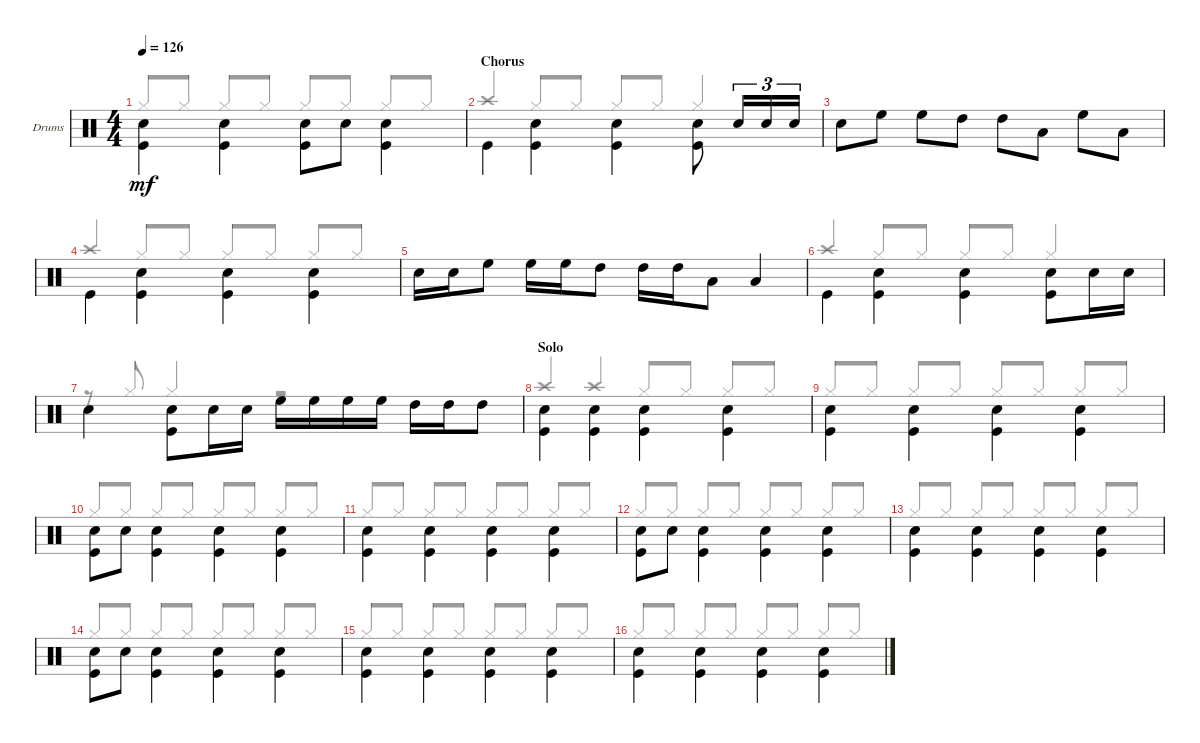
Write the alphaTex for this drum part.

\defaultSystemsLayout 4
\bracketExtendMode groupsimilarinstruments
\firstSystemTrackNameOrientation horizontal
\otherSystemsTrackNameOrientation horizontal
\track ("PETER CRISS" "Drums") {instrument percussion}
\staff {score}
\articulation defaults
\voice
\ts (4 4)
\tempo 126
\clef neutral
\scale
0.301275
\ks c
("Snare (hit) 2" "Kick (hit)").4{dy mf beam invert} ("Snare (hit) 2" "Kick (hit)").4{beam invert} ("Snare (hit) 2" "Kick (hit)").8{beam invert} "Snare (hit) 2".8 ("Snare (hit) 2" "Kick (hit)").4{beam invert} |
\section ("" "Chorus")
\scale
0.443426 "Kick (hit)".4{beam invert} ("Snare (hit) 2" "Kick (hit)").4{beam invert} ("Snare (hit) 2" "Kick (hit)").4{beam invert} ("Snare (hit) 2" "Kick (hit)").8{beam invert} "Snare (hit) 2".16{tu (3 2)} "Snare (hit) 2".16{tu (3 2)} "Snare (hit) 2".16{tu (3 2)} |
"Snare (hit) 2".8 "High Floor Tom (hit)".8 "High Floor Tom (hit)".8 "High Tom (hit)".8 "High Tom (hit)".8 "Low Tom (hit)".8 "High Floor Tom (hit)".8 "Low Tom (hit)".8 |
"Kick (hit)".4{beam invert} ("Snare (hit) 2" "Kick (hit)").4{beam invert} ("Snare (hit) 2" "Kick (hit)").4{beam invert} ("Snare (hit) 2" "Kick (hit)").4{beam invert} |
"Snare (hit) 2".16 "Snare (hit) 2".16 "High Floor Tom (hit)".8 "High Floor Tom (hit)".16 "High Floor Tom (hit)".16 "High Tom (hit)".8 "High Tom (hit)".16 "High Tom (hit)".16 "Low Tom (hit)".8 "Low Tom (hit)".4 |
"Kick (hit)".4{beam invert} ("Snare (hit) 2" "Kick (hit)").4{beam invert} ("Snare (hit) 2" "Kick (hit)").4{beam invert} ("Snare (hit) 2" "Kick (hit)").8{beam invert} "Snare (hit) 2".16 "Snare (hit) 2".16 |
"Snare (hit) 2".4{beam invert} ("Snare (hit) 2" "Kick (hit)").8{beam invert} "Snare (hit) 2".16 "Snare (hit) 2".16 "High Floor Tom (hit)".16{beam invert} "High Floor Tom (hit)".16 "High Floor Tom (hit)".16 "High Floor Tom (hit)".16 "High Tom (hit)".16{beam invert} "High Tom (hit)".16 "High Tom (hit)".8 |
\section ("" "Solo")
("Snare (hit) 2" "Kick (hit)").4{beam invert} ("Snare (hit) 2" "Kick (hit)").4{beam invert} ("Snare (hit) 2" "Kick (hit)").4{beam invert} ("Snare (hit) 2" "Kick (hit)").4{beam invert} |
("Snare (hit) 2" "Kick (hit)").4{beam invert} ("Snare (hit) 2" "Kick (hit)").4{beam invert} ("Snare (hit) 2" "Kick (hit)").4{beam invert} ("Snare (hit) 2" "Kick (hit)").4{beam invert} |
("Kick (hit)" "Snare (hit) 2").8{beam invert} "Snare (hit) 2".8 ("Snare (hit) 2" "Kick (hit)").4{beam invert} ("Snare (hit) 2" "Kick (hit)").4{beam invert} ("Snare (hit) 2" "Kick (hit)").4{beam invert} |
("Snare (hit) 2" "Kick (hit)").4{beam invert} ("Snare (hit) 2" "Kick (hit)").4{beam invert} ("Snare (hit) 2" "Kick (hit)").4{beam invert} ("Snare (hit) 2" "Kick (hit)").4{beam invert} |
("Kick (hit)" "Snare (hit) 2").8{beam invert} "Snare (hit) 2".8 ("Snare (hit) 2" "Kick (hit)").4{beam invert} ("Snare (hit) 2" "Kick (hit)").4{beam invert} ("Snare (hit) 2" "Kick (hit)").4{beam invert} |
("Snare (hit) 2" "Kick (hit)").4{beam invert} ("Snare (hit) 2" "Kick (hit)").4{beam invert} ("Snare (hit) 2" "Kick (hit)").4{beam invert} ("Snare (hit) 2" "Kick (hit)").4{beam invert} |
("Kick (hit)" "Snare (hit) 2").8{beam invert} "Snare (hit) 2".8 ("Snare (hit) 2" "Kick (hit)").4{beam invert} ("Snare (hit) 2" "Kick (hit)").4{beam invert} ("Snare (hit) 2" "Kick (hit)").4{beam invert} |
("Snare (hit) 2" "Kick (hit)").4{beam invert} ("Snare (hit) 2" "Kick (hit)").4{beam invert} ("Snare (hit) 2" "Kick (hit)").4{beam invert} ("Snare (hit) 2" "Kick (hit)").4{beam invert} |
("Snare (hit) 2" "Kick (hit)").4{beam invert} ("Snare (hit) 2" "Kick (hit)").4{beam invert} ("Snare (hit) 2" "Kick (hit)").4{beam invert} ("Snare (hit) 2" "Kick (hit)").4{beam invert}
\voice
\clef neutral
\ottava regular
\simile none
\scale
0.301275
\ks c "Hi-Hat (closed)".8{dy mf beam invert} "Hi-Hat (closed)".8 "Hi-Hat (closed)".8{beam invert} "Hi-Hat (closed)".8 "Hi-Hat (closed)".8{beam invert} "Hi-Hat (closed)".8 "Hi-Hat (closed)".8{beam invert} "Hi-Hat (closed)".8
|
\scale
0.443426 "Crash high (hit)".4{beam invert} "Hi-Hat (closed)".8{beam invert} "Hi-Hat (closed)".8 "Hi-Hat (closed)".8{beam invert} "Hi-Hat (closed)".8 "Hi-Hat (closed)".4{beam invert} |
|
"Crash high (hit)".4{beam invert} "Hi-Hat (closed)".8{beam invert} "Hi-Hat (closed)".8 "Hi-Hat (closed)".8{beam invert} "Hi-Hat (closed)".8 "Hi-Hat (closed)".8{beam invert} "Hi-Hat (closed)".8 |
|
"Crash high (hit)".4{beam invert} "Hi-Hat (closed)".8{beam invert} "Hi-Hat (closed)".8 "Hi-Hat (closed)".8{beam invert} "Hi-Hat (closed)".8 "Hi-Hat (closed)".4{beam invert} |
r.8{beam invert} "Hi-Hat (closed)".8{beam invert} "Hi-Hat (closed)".4{beam invert} r.2{beam invert} |
"Crash high (hit)".4{beam invert} "Crash high (hit)".4{beam invert} "Hi-Hat (closed)".8{beam invert} "Hi-Hat (closed)".8 "Hi-Hat (closed)".8{beam invert} "Hi-Hat (closed)".8 |
"Hi-Hat (closed)".8{beam invert} "Hi-Hat (closed)".8 "Hi-Hat (closed)".8{beam invert} "Hi-Hat (closed)".8 "Hi-Hat (closed)".8{beam invert} "Hi-Hat (closed)".8 "Hi-Hat (closed)".8{beam invert} "Hi-Hat (closed)".8 |
"Hi-Hat (closed)".8{beam invert} "Hi-Hat (closed)".8 "Hi-Hat (closed)".8{beam invert} "Hi-Hat (closed)".8 "Hi-Hat (closed)".8{beam invert} "Hi-Hat (closed)".8 "Hi-Hat (closed)".8{beam invert} "Hi-Hat (closed)".8 |
"Hi-Hat (closed)".8{beam invert} "Hi-Hat (closed)".8 "Hi-Hat (closed)".8{beam invert} "Hi-Hat (closed)".8 "Hi-Hat (closed)".8{beam invert} "Hi-Hat (closed)".8 "Hi-Hat (closed)".8{beam invert} "Hi-Hat (closed)".8 |
"Hi-Hat (closed)".8{beam invert} "Hi-Hat (closed)".8 "Hi-Hat (closed)".8{beam invert} "Hi-Hat (closed)".8 "Hi-Hat (closed)".8{beam invert} "Hi-Hat (closed)".8 "Hi-Hat (closed)".8{beam invert} "Hi-Hat (closed)".8 |
"Hi-Hat (closed)".8{beam invert} "Hi-Hat (closed)".8 "Hi-Hat (closed)".8{beam invert} "Hi-Hat (closed)".8 "Hi-Hat (closed)".8{beam invert} "Hi-Hat (closed)".8 "Hi-Hat (closed)".8{beam invert} "Hi-Hat (closed)".8 |
"Hi-Hat (closed)".8{beam invert} "Hi-Hat (closed)".8 "Hi-Hat (closed)".8{beam invert} "Hi-Hat (closed)".8 "Hi-Hat (closed)".8{beam invert} "Hi-Hat (closed)".8 "Hi-Hat (closed)".8{beam invert} "Hi-Hat (closed)".8 |
"Hi-Hat (closed)".8{beam invert} "Hi-Hat (closed)".8 "Hi-Hat (closed)".8{beam invert} "Hi-Hat (closed)".8 "Hi-Hat (closed)".8{beam invert} "Hi-Hat (closed)".8 "Hi-Hat (closed)".8{beam invert} "Hi-Hat (closed)".8 |
"Hi-Hat (closed)".8{beam invert} "Hi-Hat (closed)".8 "Hi-Hat (closed)".8{beam invert} "Hi-Hat (closed)".8 "Hi-Hat (closed)".8{beam invert} "Hi-Hat (closed)".8 "Hi-Hat (closed)".8{beam invert} "Hi-Hat (closed)".8
